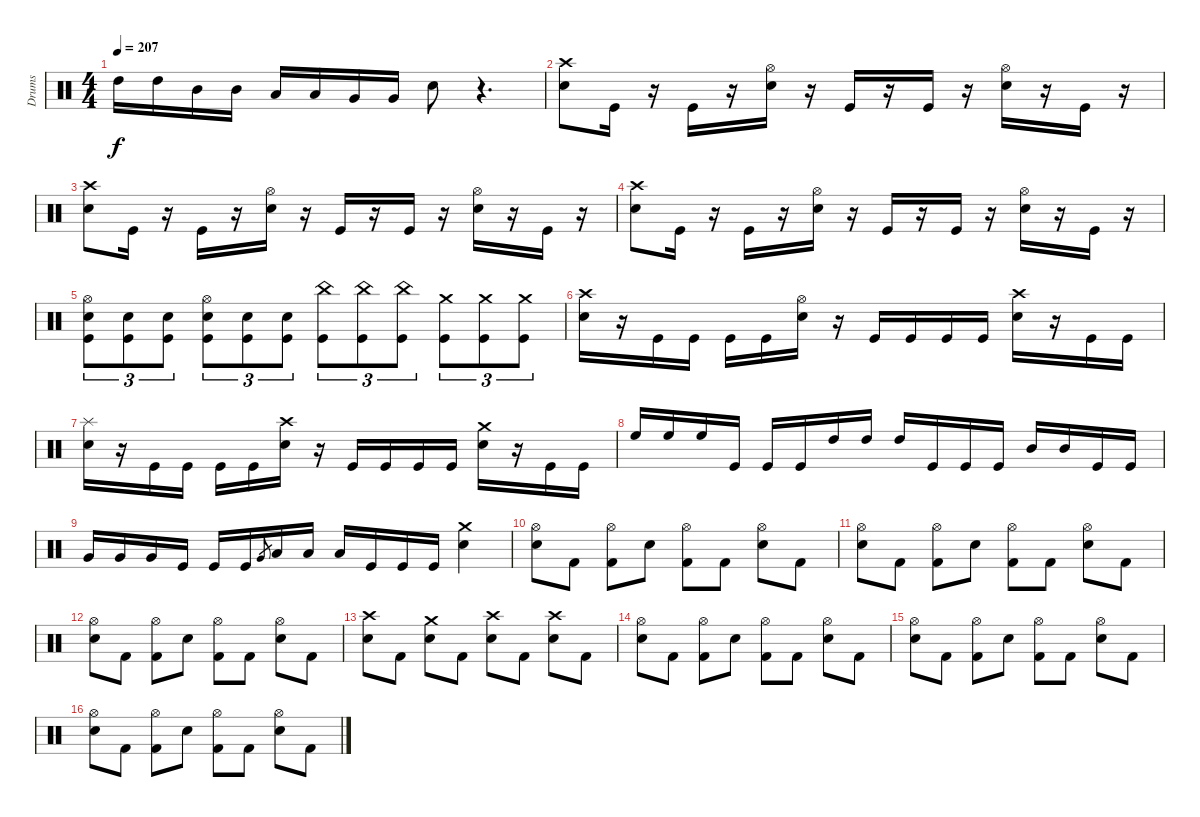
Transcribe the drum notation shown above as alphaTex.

\track ("Drums" "Drums") {instrument percussion}
\staff {score}
\articulation defaults
\ts (4 4)
\tempo 207
\clef neutral
\ks c "High Tom (hit)".16{dy f} "High Tom (hit)".16 "Mid Tom (hit)".16 "Mid Tom (hit)".16 "Low Tom (hit)".16 "Low Tom (hit)".16 "Very Low Tom (hit)".16 "Very Low Tom (hit)".16 "Electric Snare (hit)".8
r.4{d} |
("Crash high (hit)" "Electric Snare (hit)").8 "Kick (hit)".16 r.16 "Kick (hit)".16 r.16 ("Hi-Hat (open)" "Electric Snare (hit)").16 r.16 "Kick (hit)".16 r.16 "Kick (hit)".16 r.16 ("Hi-Hat (open)" "Electric Snare (hit)").16 r.16 "Kick (hit)".16 r.16 |
("Crash high (hit)" "Electric Snare (hit)").8 "Kick (hit)".16 r.16 "Kick (hit)".16 r.16 ("Hi-Hat (open)" "Electric Snare (hit)").16 r.16 "Kick (hit)".16 r.16 "Kick (hit)".16 r.16 ("Hi-Hat (open)" "Electric Snare (hit)").16 r.16 "Kick (hit)".16 r.16 |
("Crash high (hit)" "Electric Snare (hit)").8 "Kick (hit)".16 r.16 "Kick (hit)".16 r.16 ("Hi-Hat (open)" "Electric Snare (hit)").16 r.16 "Kick (hit)".16 r.16 "Kick (hit)".16 r.16 ("Hi-Hat (open)" "Electric Snare (hit)").16 r.16 "Kick (hit)".16 r.16 |
("Hi-Hat (open)" "Electric Snare (hit)" "Kick (hit)").8{tu (3 2)} ("Electric Snare (hit)" "Kick (hit)").8{tu (3 2)} ("Electric Snare (hit)" "Kick (hit)").8{tu (3 2)} ("Hi-Hat (open)" "Electric Snare (hit)" "Kick (hit)").8{tu (3 2)} ("Electric Snare (hit)" "Kick (hit)").8{tu (3 2)} ("Electric Snare (hit)" "Kick (hit)").8{tu (3 2)} ("China (hit)" "Kick (hit)").8{tu (3 2)} ("China (hit)" "Kick (hit)").8{tu (3 2)} ("China (hit)" "Kick (hit)").8{tu (3 2)} ("Crash medium (hit)" "Kick (hit)").8{tu (3 2)} ("Crash medium (hit)" "Kick (hit)").8{tu (3 2)} ("Crash medium (hit)" "Kick (hit)").8{tu (3 2)} |
("Crash high (hit)" "Electric Snare (hit)").16 r.16 "Kick (hit)".16 "Kick (hit)".16 "Kick (hit)".16 "Kick (hit)".16 ("Hi-Hat (open)" "Electric Snare (hit)").16 r.16 "Kick (hit)".16 "Kick (hit)".16 "Kick (hit)".16 "Kick (hit)".16 ("Crash high (hit)" "Electric Snare (hit)").16 r.16 "Kick (hit)".16 "Kick (hit)".16 |
("Splash (hit)" "Electric Snare (hit)").16 r.16 "Kick (hit)".16 "Kick (hit)".16 "Kick (hit)".16 "Kick (hit)".16 ("Crash high (hit)" "Electric Snare (hit)").16 r.16 "Kick (hit)".16 "Kick (hit)".16 "Kick (hit)".16 "Kick (hit)".16 ("Crash medium (hit)" "Electric Snare (hit)").16 r.16 "Kick (hit)".16 "Kick (hit)".16 |
"High Floor Tom (hit)".16 "High Floor Tom (hit)".16 "High Floor Tom (hit)".16 "Kick (hit)".16 "Kick (hit)".16 "Kick (hit)".16 "High Tom (hit)".16 "High Tom (hit)".16 "High Tom (hit)".16 "Kick (hit)".16 "Kick (hit)".16 "Kick (hit)".16 "Mid Tom (hit)".16 "Mid Tom (hit)".16 "Kick (hit)".16 "Kick (hit)".16 |
"Very Low Tom (hit)".16 "Very Low Tom (hit)".16 "Very Low Tom (hit)".16 "Kick (hit)".16 "Kick (hit)".16 "Kick (hit)".16 "Very Low Tom (hit)".8{gr} "Low Floor Tom (hit)".16 "Low Floor Tom (hit)".16 "Low Floor Tom (hit)".16 "Kick (hit)".16 "Kick (hit)".16 "Kick (hit)".16 ("Crash medium (hit)" "Electric Snare (hit)").4 |
("Hi-Hat (open)" "Electric Snare (hit)").8 "Kick (hit) 2".8 ("Hi-Hat (open)" "Kick (hit) 2").8 "Electric Snare (hit)".8 ("Hi-Hat (open)" "Kick (hit) 2").8 "Kick (hit) 2".8 ("Hi-Hat (open)" "Electric Snare (hit)").8 "Kick (hit) 2".8 |
("Hi-Hat (open)" "Electric Snare (hit)").8 "Kick (hit) 2".8 ("Hi-Hat (open)" "Kick (hit) 2").8 "Electric Snare (hit)".8 ("Hi-Hat (open)" "Kick (hit) 2").8 "Kick (hit) 2".8 ("Hi-Hat (open)" "Electric Snare (hit)").8 "Kick (hit) 2".8 |
("Hi-Hat (open)" "Electric Snare (hit)").8 "Kick (hit) 2".8 ("Hi-Hat (open)" "Kick (hit) 2").8 "Electric Snare (hit)".8 ("Hi-Hat (open)" "Kick (hit) 2").8 "Kick (hit) 2".8 ("Hi-Hat (open)" "Electric Snare (hit)").8 "Kick (hit) 2".8 |
("Crash high (hit)" "Electric Snare (hit)").8 "Kick (hit) 2".8 ("Crash medium (hit)" "Electric Snare (hit)").8 "Kick (hit) 2".8 ("Crash high (hit)" "Electric Snare (hit)").8 "Kick (hit) 2".8 ("Crash high (hit)" "Electric Snare (hit)").8 "Kick (hit) 2".8 |
("Hi-Hat (open)" "Electric Snare (hit)").8 "Kick (hit) 2".8 ("Hi-Hat (open)" "Kick (hit) 2").8 "Electric Snare (hit)".8 ("Hi-Hat (open)" "Kick (hit) 2").8 "Kick (hit) 2".8 ("Hi-Hat (open)" "Electric Snare (hit)").8 "Kick (hit) 2".8 |
("Hi-Hat (open)" "Electric Snare (hit)").8 "Kick (hit) 2".8 ("Hi-Hat (open)" "Kick (hit) 2").8 "Electric Snare (hit)".8 ("Hi-Hat (open)" "Kick (hit) 2").8 "Kick (hit) 2".8 ("Hi-Hat (open)" "Electric Snare (hit)").8 "Kick (hit) 2".8 |
("Hi-Hat (open)" "Electric Snare (hit)").8 "Kick (hit) 2".8 ("Hi-Hat (open)" "Kick (hit) 2").8 "Electric Snare (hit)".8 ("Hi-Hat (open)" "Kick (hit) 2").8 "Kick (hit) 2".8 ("Hi-Hat (open)" "Electric Snare (hit)").8 "Kick (hit) 2".8
